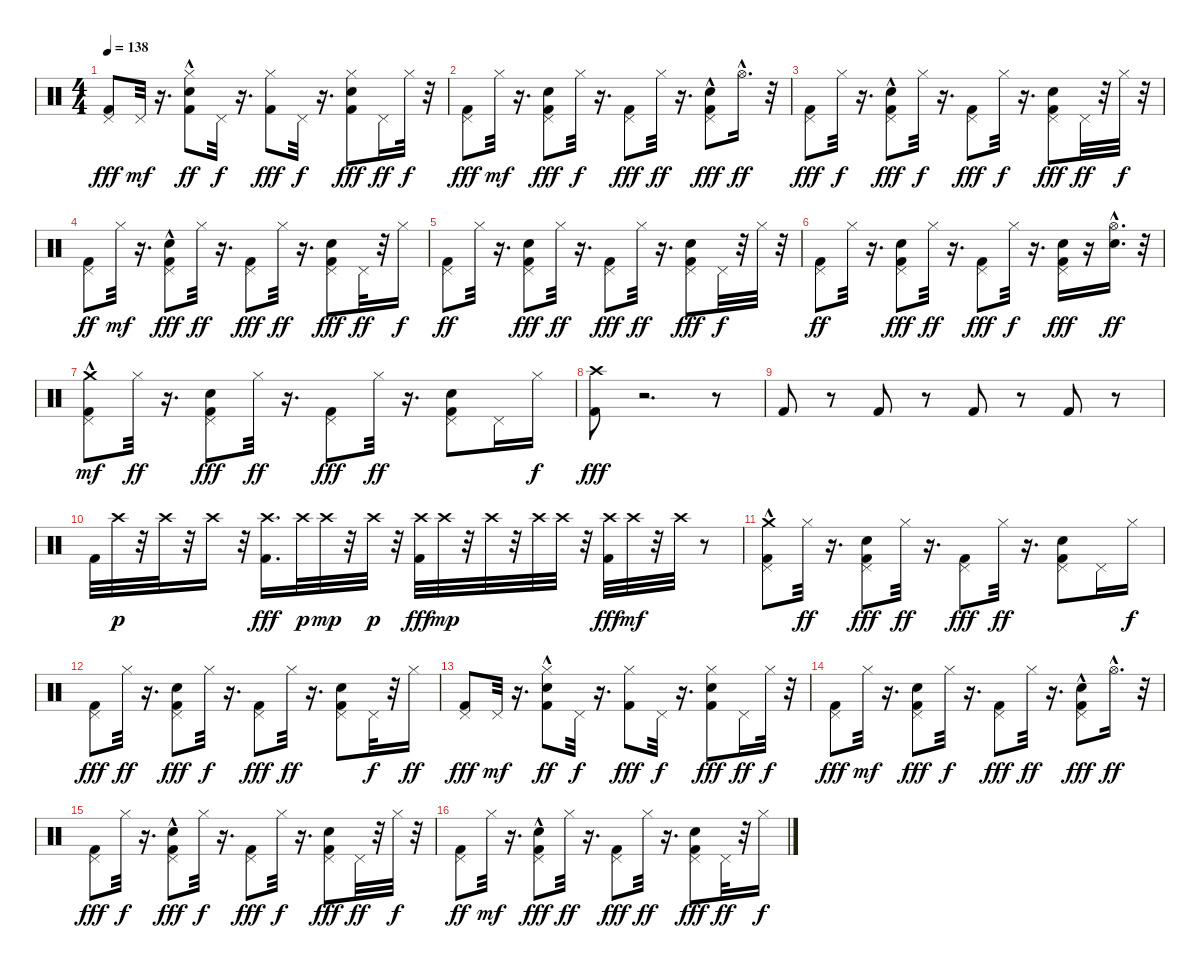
\track "" {instrument percussion}
\staff {score}
\articulation defaults
\ts (4 4)
\tempo 138
\clef neutral
\ks c
("Kick (hit) 2" "Pedal Hi-Hat (hit)").8{dy fff} "Pedal Hi-Hat (hit)".32{dy mf} r.16{d} ("Snare (hit) 2"{hac} "Kick (hit) 2" "Hi-Hat (closed)").8{dy ff} "Pedal Hi-Hat (hit)".32{dy f} r.16{d} ("Hi-Hat (closed)" "Kick (hit) 2").8{dy fff} "Pedal Hi-Hat (hit)".32{dy f} r.16{d} ("Snare (hit) 2" "Hi-Hat (closed)" "Kick (hit) 2").8{dy fff} "Pedal Hi-Hat (hit)".16{dy ff} "Hi-Hat (closed)".32{dy f} r.32 |
("Kick (hit) 2" "Pedal Hi-Hat (hit)").8{dy fff} "Hi-Hat (closed)".32{dy mf} r.16{d} ("Snare (hit) 2" "Kick (hit) 2" "Pedal Hi-Hat (hit)").8{dy fff} "Hi-Hat (closed)".32{dy f} r.16{d} ("Pedal Hi-Hat (hit)" "Kick (hit) 2").8{dy fff} "Hi-Hat (closed)".32{dy ff} r.16{d} ("Pedal Hi-Hat (hit)" "Snare (hit) 2"{hac} "Kick (hit) 2").8{dy fff} "Hi-Hat (open)"{hac}.16{d dy ff} r.32 |
("Kick (hit) 2" "Pedal Hi-Hat (hit)").8{dy fff} "Hi-Hat (closed)".32{dy f} r.16{d} ("Pedal Hi-Hat (hit)" "Snare (hit) 2"{hac} "Kick (hit) 2").8{dy fff} "Hi-Hat (closed)".32{dy f} r.16{d} ("Kick (hit) 2" "Pedal Hi-Hat (hit)").8{dy fff} "Hi-Hat (closed)".32{dy f} r.16{d} ("Kick (hit) 2" "Snare (hit) 2" "Pedal Hi-Hat (hit)").8{dy fff} "Pedal Hi-Hat (hit)".32{dy ff} r.32 "Hi-Hat (closed)".32{dy f} r.32 |
("Kick (hit) 2" "Pedal Hi-Hat (hit)").8{dy ff} "Hi-Hat (closed)".32{dy mf} r.16{d} ("Snare (hit) 2"{hac} "Kick (hit) 2" "Pedal Hi-Hat (hit)").8{dy fff} "Hi-Hat (closed)".32{dy ff} r.16{d} ("Pedal Hi-Hat (hit)" "Kick (hit) 2").8{dy fff} "Hi-Hat (closed)".32{dy ff} r.16{d} ("Snare (hit) 2" "Kick (hit) 2" "Pedal Hi-Hat (hit)").8{dy fff} "Pedal Hi-Hat (hit)".32{dy ff} r.32 "Hi-Hat (closed)".16{dy f} |
("Kick (hit) 2" "Pedal Hi-Hat (hit)").8{dy ff} "Hi-Hat (closed)".32 r.16{d} ("Pedal Hi-Hat (hit)" "Snare (hit) 2" "Kick (hit) 2").8{dy fff} "Hi-Hat (closed)".32{dy ff} r.16{d} ("Kick (hit) 2" "Pedal Hi-Hat (hit)").8{dy fff} "Hi-Hat (closed)".32{dy ff} r.16{d} ("Pedal Hi-Hat (hit)" "Snare (hit) 2" "Kick (hit) 2").8{dy fff} "Pedal Hi-Hat (hit)".32{dy f} r.32 "Hi-Hat (closed)".32 r.32 |
("Kick (hit) 2" "Pedal Hi-Hat (hit)").8{dy ff} "Hi-Hat (closed)".32 r.16{d} ("Snare (hit) 2" "Pedal Hi-Hat (hit)" "Kick (hit) 2").8{dy fff} "Hi-Hat (closed)".32{dy ff} r.16{d} ("Kick (hit) 2" "Pedal Hi-Hat (hit)").8{dy fff} "Hi-Hat (closed)".32{dy f} r.16{d} ("Pedal Hi-Hat (hit)" "Snare (hit) 2" "Kick (hit) 2").16{dy fff} r.16 ("Snare (hit) 2" "Hi-Hat (open)"{hac}).16{d dy ff} r.32 |
("Kick (hit) 2" "Pedal Hi-Hat (hit)" "Crash medium (hit)"{hac}).8{dy mf} "Hi-Hat (closed)".32{dy ff} r.16{d} ("Pedal Hi-Hat (hit)" "Kick (hit) 2" "Snare (hit) 2").8{dy fff} "Hi-Hat (closed)".32{dy ff} r.16{d} ("Pedal Hi-Hat (hit)" "Kick (hit) 2").8{dy fff} "Hi-Hat (closed)".32{dy ff} r.16{d} ("Snare (hit) 2" "Kick (hit) 2" "Pedal Hi-Hat (hit)").8 "Pedal Hi-Hat (hit)".16 "Hi-Hat (closed)".16{dy f} |
("Crash high (hit)" "Kick (hit) 2").8{dy fff} r.2{d} r.8 |
"Kick (hit) 2".8 r.8 "Kick (hit) 2".8 r.8 "Kick (hit) 2".8 r.8 "Kick (hit) 2".8 r.8 |
"Kick (hit) 2".32 "Crash high (hit)".32{dy p} r.32 "Crash high (hit)".32 r.32 "Crash high (hit)".16 r.32 ("Crash high (hit)" "Kick (hit) 2").16{d dy fff} "Crash high (hit)".32{dy p} "Crash high (hit)".32{dy mp} r.32 "Crash high (hit)".32{dy p} r.32 ("Crash high (hit)" "Kick (hit) 2").32{dy fff} "Crash high (hit)".32{dy mp} r.32 "Crash high (hit)".32 r.32 "Crash high (hit)".32 "Crash high (hit)".32 r.32 ("Crash high (hit)" "Kick (hit) 2").32{dy fff} "Crash high (hit)".32{dy mf} r.32 "Crash high (hit)".32 r.8 |
("Kick (hit) 2" "Pedal Hi-Hat (hit)" "Crash medium (hit)"{hac}).8 "Hi-Hat (closed)".32{dy ff} r.16{d} ("Pedal Hi-Hat (hit)" "Kick (hit) 2" "Snare (hit) 2").8{dy fff} "Hi-Hat (closed)".32{dy ff} r.16{d} ("Pedal Hi-Hat (hit)" "Kick (hit) 2").8{dy fff} "Hi-Hat (closed)".32{dy ff} r.16{d} ("Snare (hit) 2" "Kick (hit) 2" "Pedal Hi-Hat (hit)").8 "Pedal Hi-Hat (hit)".16 "Hi-Hat (closed)".16{dy f} |
("Kick (hit) 2" "Pedal Hi-Hat (hit)").8{dy fff} "Hi-Hat (closed)".32{dy ff} r.16{d} ("Kick (hit) 2" "Snare (hit) 2" "Pedal Hi-Hat (hit)").8{dy fff} "Hi-Hat (closed)".32{dy f} r.16{d} ("Pedal Hi-Hat (hit)" "Kick (hit) 2").8{dy fff} "Hi-Hat (closed)".32{dy ff} r.16{d} ("Kick (hit) 2" "Snare (hit) 2" "Pedal Hi-Hat (hit)").8 "Pedal Hi-Hat (hit)".32{dy f} r.32 "Hi-Hat (closed)".16{dy ff} |
("Kick (hit) 2" "Pedal Hi-Hat (hit)").8{dy fff} "Pedal Hi-Hat (hit)".32{dy mf} r.16{d} ("Snare (hit) 2"{hac} "Kick (hit) 2" "Hi-Hat (closed)").8{dy ff} "Pedal Hi-Hat (hit)".32{dy f} r.16{d} ("Hi-Hat (closed)" "Kick (hit) 2").8{dy fff} "Pedal Hi-Hat (hit)".32{dy f} r.16{d} ("Snare (hit) 2" "Hi-Hat (closed)" "Kick (hit) 2").8{dy fff} "Pedal Hi-Hat (hit)".16{dy ff} "Hi-Hat (closed)".32{dy f} r.32 |
("Kick (hit) 2" "Pedal Hi-Hat (hit)").8{dy fff} "Hi-Hat (closed)".32{dy mf} r.16{d} ("Snare (hit) 2" "Kick (hit) 2" "Pedal Hi-Hat (hit)").8{dy fff} "Hi-Hat (closed)".32{dy f} r.16{d} ("Pedal Hi-Hat (hit)" "Kick (hit) 2").8{dy fff} "Hi-Hat (closed)".32{dy ff} r.16{d} ("Pedal Hi-Hat (hit)" "Snare (hit) 2"{hac} "Kick (hit) 2").8{dy fff} "Hi-Hat (open)"{hac}.16{d dy ff} r.32 |
("Kick (hit) 2" "Pedal Hi-Hat (hit)").8{dy fff} "Hi-Hat (closed)".32{dy f} r.16{d} ("Pedal Hi-Hat (hit)" "Snare (hit) 2"{hac} "Kick (hit) 2").8{dy fff} "Hi-Hat (closed)".32{dy f} r.16{d} ("Kick (hit) 2" "Pedal Hi-Hat (hit)").8{dy fff} "Hi-Hat (closed)".32{dy f} r.16{d} ("Kick (hit) 2" "Snare (hit) 2" "Pedal Hi-Hat (hit)").8{dy fff} "Pedal Hi-Hat (hit)".32{dy ff} r.32 "Hi-Hat (closed)".32{dy f} r.32 |
("Kick (hit) 2" "Pedal Hi-Hat (hit)").8{dy ff} "Hi-Hat (closed)".32{dy mf} r.16{d} ("Snare (hit) 2"{hac} "Kick (hit) 2" "Pedal Hi-Hat (hit)").8{dy fff} "Hi-Hat (closed)".32{dy ff} r.16{d} ("Pedal Hi-Hat (hit)" "Kick (hit) 2").8{dy fff} "Hi-Hat (closed)".32{dy ff} r.16{d} ("Snare (hit) 2" "Kick (hit) 2" "Pedal Hi-Hat (hit)").8{dy fff} "Pedal Hi-Hat (hit)".32{dy ff} r.32 "Hi-Hat (closed)".16{dy f}
